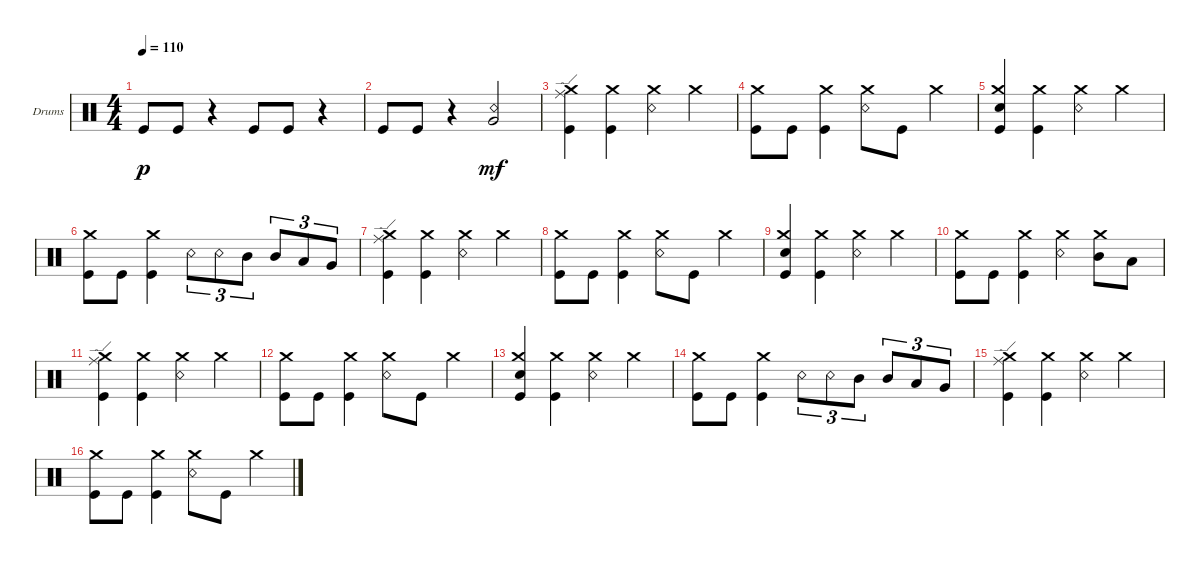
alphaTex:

\defaultSystemsLayout 4
\bracketExtendMode groupsimilarinstruments
\firstSystemTrackNameOrientation horizontal
\otherSystemsTrackNameOrientation horizontal
\track ("Drumkit" "Drums") {instrument percussion}
\staff {score}
\articulation defaults
\ts (4 4)
\tempo 110
\clef neutral
\ks c "Kick (hit)".8{dy p} "Kick (hit)".8
r.4 "Kick (hit)".8 "Kick (hit)".8 r.4 |
"Kick (hit)".8 "Kick (hit)".8 r.4 ("Snare (rim shot)" "Very Low Tom (hit)").2{dy mf} |
("Kick (hit)" "Ride (edge)" "Crash medium (hit)").4 ("Kick (hit)" "Crash medium (hit)").4 ("Snare (rim shot)" "Crash medium (hit)").4 "Crash medium (hit)".4 |
("Kick (hit)" "Crash medium (hit)").8 "Kick (hit)".8 ("Kick (hit)" "Crash medium (hit)").4 ("Crash medium (hit)" "Snare (rim shot)").8 "Kick (hit)".8 "Crash medium (hit)".4 |
("Kick (hit)" "Crash medium (hit)" "Snare (hit) 2").4 ("Kick (hit)" "Crash medium (hit)").4 ("Snare (rim shot)" "Crash medium (hit)").4 "Crash medium (hit)".4 |
("Kick (hit)" "Crash medium (hit)").8 "Kick (hit)".8 ("Kick (hit)" "Crash medium (hit)").4 "Snare (rim shot)".8{tu (3 2)} "Snare (rim shot)".8{tu (3 2)} "Mid Tom (hit)".8{tu (3 2)} "Mid Tom (hit)".8{tu (3 2)} "Low Tom (hit)".8{tu (3 2)} "Very Low Tom (hit)".8{tu (3 2)} |
("Kick (hit)" "Ride (edge)" "Crash medium (hit)").4 ("Kick (hit)" "Crash medium (hit)").4 ("Snare (rim shot)" "Crash medium (hit)").4 "Crash medium (hit)".4 |
("Kick (hit)" "Crash medium (hit)").8 "Kick (hit)".8 ("Kick (hit)" "Crash medium (hit)").4 ("Crash medium (hit)" "Snare (rim shot)").8 "Kick (hit)".8 "Crash medium (hit)".4 |
("Kick (hit)" "Crash medium (hit)" "Snare (hit) 2").4 ("Kick (hit)" "Crash medium (hit)").4 ("Snare (rim shot)" "Crash medium (hit)").4 "Crash medium (hit)".4 |
("Kick (hit)" "Crash medium (hit)").8 "Kick (hit)".8 ("Kick (hit)" "Crash medium (hit)").4 ("Snare (rim shot)" "Crash medium (hit)").4 ("Crash medium (hit)" "Mid Tom (hit)").8 "Low Tom (hit)".8 |
("Kick (hit)" "Ride (edge)" "Crash medium (hit)").4 ("Kick (hit)" "Crash medium (hit)").4 ("Snare (rim shot)" "Crash medium (hit)").4 "Crash medium (hit)".4 |
("Kick (hit)" "Crash medium (hit)").8 "Kick (hit)".8 ("Kick (hit)" "Crash medium (hit)").4 ("Crash medium (hit)" "Snare (rim shot)").8 "Kick (hit)".8 "Crash medium (hit)".4 |
("Kick (hit)" "Crash medium (hit)" "Snare (hit) 2").4 ("Kick (hit)" "Crash medium (hit)").4 ("Snare (rim shot)" "Crash medium (hit)").4 "Crash medium (hit)".4 |
("Kick (hit)" "Crash medium (hit)").8 "Kick (hit)".8 ("Kick (hit)" "Crash medium (hit)").4 "Snare (rim shot)".8{tu (3 2)} "Snare (rim shot)".8{tu (3 2)} "Mid Tom (hit)".8{tu (3 2)} "Mid Tom (hit)".8{tu (3 2)} "Low Tom (hit)".8{tu (3 2)} "Very Low Tom (hit)".8{tu (3 2)} |
("Kick (hit)" "Ride (edge)" "Crash medium (hit)").4 ("Kick (hit)" "Crash medium (hit)").4 ("Snare (rim shot)" "Crash medium (hit)").4 "Crash medium (hit)".4 |
("Kick (hit)" "Crash medium (hit)").8 "Kick (hit)".8 ("Kick (hit)" "Crash medium (hit)").4 ("Crash medium (hit)" "Snare (rim shot)").8 "Kick (hit)".8 "Crash medium (hit)".4
